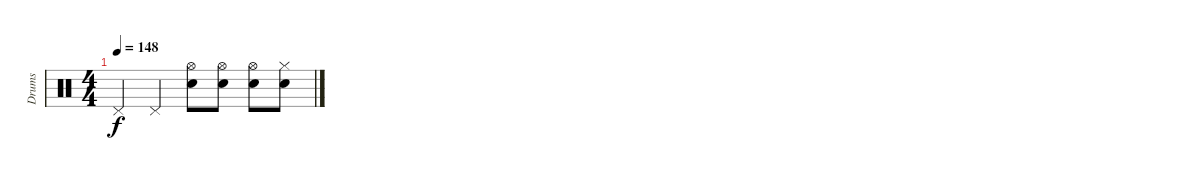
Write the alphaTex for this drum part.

\track ("Drums" "Drums") {instrument percussion}
\staff {score}
\articulation defaults
\ts (4 4)
\tempo 148
\clef neutral
\ks c "Pedal Hi-Hat (hit)".4{dy f} "Pedal Hi-Hat (hit)".4
("Hi-Hat (open)" "Snare (hit) 2").8 ("Hi-Hat (open)" "Snare (hit) 2").8 ("Hi-Hat (open)" "Snare (hit) 2").8 ("Hi-Hat (closed)" "Snare (hit) 2").8
